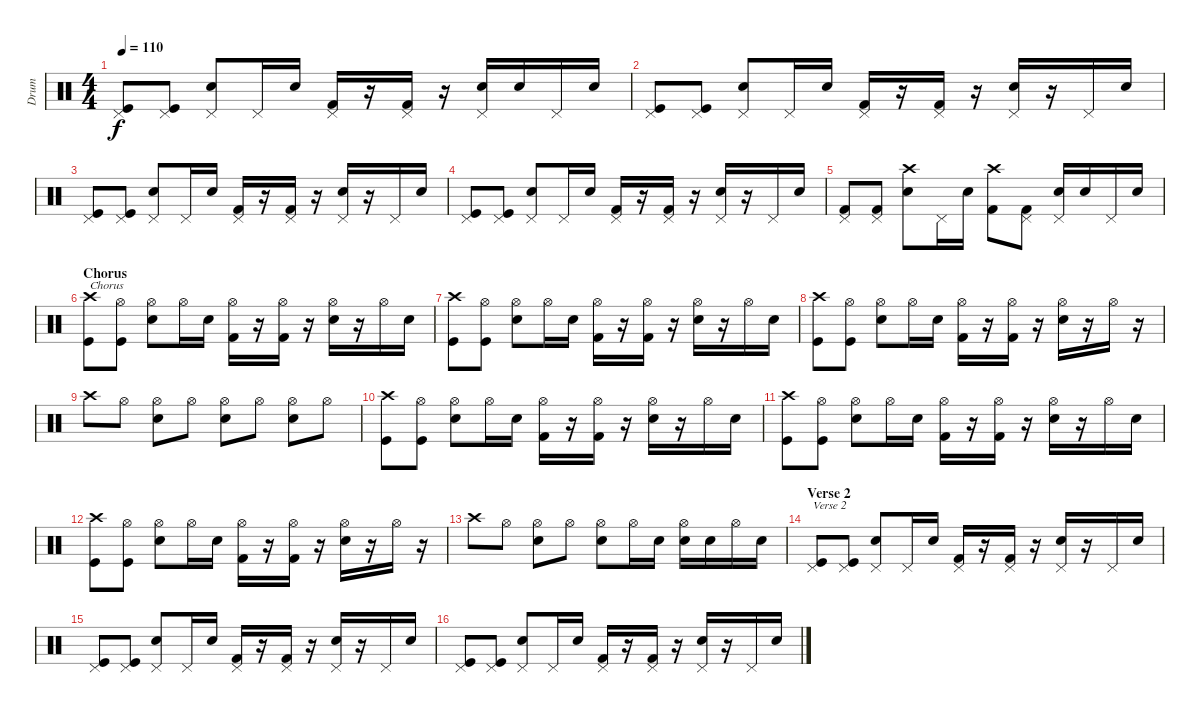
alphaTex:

\track ("Drum" "Drum") {instrument percussion}
\staff {score}
\articulation defaults
\ts (4 4)
\tempo 110
\clef neutral
\ks c
("Pedal Hi-Hat (hit)" "Kick (hit)").8{dy f} ("Pedal Hi-Hat (hit)" "Kick (hit)").8 ("Pedal Hi-Hat (hit)" "Electric Snare (hit)").8 "Pedal Hi-Hat (hit)".16 "Electric Snare (hit)".16 ("Pedal Hi-Hat (hit)" "Kick (hit) 2").16 r.16 ("Pedal Hi-Hat (hit)" "Kick (hit) 2").16 r.16 ("Pedal Hi-Hat (hit)" "Electric Snare (hit)").16 "Electric Snare (hit)".16 "Pedal Hi-Hat (hit)".16 "Electric Snare (hit)".16 |
("Pedal Hi-Hat (hit)" "Kick (hit)").8 ("Pedal Hi-Hat (hit)" "Kick (hit)").8 ("Pedal Hi-Hat (hit)" "Electric Snare (hit)").8 "Pedal Hi-Hat (hit)".16 "Electric Snare (hit)".16 ("Pedal Hi-Hat (hit)" "Kick (hit) 2").16 r.16 ("Pedal Hi-Hat (hit)" "Kick (hit) 2").16 r.16 ("Pedal Hi-Hat (hit)" "Electric Snare (hit)").16 r.16 "Pedal Hi-Hat (hit)".16 "Electric Snare (hit)".16 |
("Pedal Hi-Hat (hit)" "Kick (hit)").8 ("Pedal Hi-Hat (hit)" "Kick (hit)").8 ("Pedal Hi-Hat (hit)" "Electric Snare (hit)").8 "Pedal Hi-Hat (hit)".16 "Electric Snare (hit)".16 ("Pedal Hi-Hat (hit)" "Kick (hit) 2").16 r.16 ("Pedal Hi-Hat (hit)" "Kick (hit) 2").16 r.16 ("Pedal Hi-Hat (hit)" "Electric Snare (hit)").16 r.16 "Pedal Hi-Hat (hit)".16 "Electric Snare (hit)".16 |
("Pedal Hi-Hat (hit)" "Kick (hit)").8 ("Pedal Hi-Hat (hit)" "Kick (hit)").8 ("Pedal Hi-Hat (hit)" "Electric Snare (hit)").8 "Pedal Hi-Hat (hit)".16 "Electric Snare (hit)".16 ("Pedal Hi-Hat (hit)" "Kick (hit) 2").16 r.16 ("Pedal Hi-Hat (hit)" "Kick (hit) 2").16 r.16 ("Pedal Hi-Hat (hit)" "Electric Snare (hit)").16 r.16 "Pedal Hi-Hat (hit)".16 "Electric Snare (hit)".16 |
("Pedal Hi-Hat (hit)" "Kick (hit) 2").8 ("Pedal Hi-Hat (hit)" "Kick (hit) 2").8 ("Crash high (hit)" "Electric Snare (hit)").8 "Pedal Hi-Hat (hit)".16 "Electric Snare (hit)".16 ("Crash high (hit)" "Kick (hit) 2").8 ("Pedal Hi-Hat (hit)" "Kick (hit) 2").8 ("Pedal Hi-Hat (hit)" "Electric Snare (hit)").16 "Electric Snare (hit)".16 "Pedal Hi-Hat (hit)".16 "Electric Snare (hit)".16 |
\section ("" "Chorus")
("Crash high (hit)" "Kick (hit)").8{txt "Chorus"} ("Hi-Hat (open)" "Kick (hit)").8 ("Hi-Hat (open)" "Electric Snare (hit)").8 "Hi-Hat (open)".16 "Electric Snare (hit)".16 ("Hi-Hat (open)" "Kick (hit) 2").16 r.16 ("Hi-Hat (open)" "Kick (hit) 2").16 r.16 ("Hi-Hat (open)" "Electric Snare (hit)").16 r.16 "Hi-Hat (open)".16 "Electric Snare (hit)".16 |
("Crash high (hit)" "Kick (hit)").8 ("Hi-Hat (open)" "Kick (hit)").8 ("Hi-Hat (open)" "Electric Snare (hit)").8 "Hi-Hat (open)".16 "Electric Snare (hit)".16 ("Hi-Hat (open)" "Kick (hit) 2").16 r.16 ("Hi-Hat (open)" "Kick (hit) 2").16 r.16 ("Hi-Hat (open)" "Electric Snare (hit)").16 r.16 "Hi-Hat (open)".16 "Electric Snare (hit)".16 |
("Crash high (hit)" "Kick (hit)").8 ("Hi-Hat (open)" "Kick (hit)").8 ("Hi-Hat (open)" "Electric Snare (hit)").8 "Hi-Hat (open)".16 "Electric Snare (hit)".16 ("Hi-Hat (open)" "Kick (hit) 2").16 r.16 ("Hi-Hat (open)" "Kick (hit) 2").16 r.16 ("Hi-Hat (open)" "Electric Snare (hit)").16 r.16 "Hi-Hat (open)".16 r.16 |
"Crash high (hit)".8 "Hi-Hat (open)".8 ("Hi-Hat (open)" "Electric Snare (hit)").8 "Hi-Hat (open)".8 ("Hi-Hat (open)" "Electric Snare (hit)").8 "Hi-Hat (open)".8 ("Hi-Hat (open)" "Electric Snare (hit)").8 "Hi-Hat (open)".8 |
("Crash high (hit)" "Kick (hit)").8 ("Hi-Hat (open)" "Kick (hit)").8 ("Hi-Hat (open)" "Electric Snare (hit)").8 "Hi-Hat (open)".16 "Electric Snare (hit)".16 ("Hi-Hat (open)" "Kick (hit) 2").16 r.16 ("Hi-Hat (open)" "Kick (hit) 2").16 r.16 ("Hi-Hat (open)" "Electric Snare (hit)").16 r.16 "Hi-Hat (open)".16 "Electric Snare (hit)".16 |
("Crash high (hit)" "Kick (hit)").8 ("Hi-Hat (open)" "Kick (hit)").8 ("Hi-Hat (open)" "Electric Snare (hit)").8 "Hi-Hat (open)".16 "Electric Snare (hit)".16 ("Hi-Hat (open)" "Kick (hit) 2").16 r.16 ("Hi-Hat (open)" "Kick (hit) 2").16 r.16 ("Hi-Hat (open)" "Electric Snare (hit)").16 r.16 "Hi-Hat (open)".16 "Electric Snare (hit)".16 |
("Crash high (hit)" "Kick (hit)").8 ("Hi-Hat (open)" "Kick (hit)").8 ("Hi-Hat (open)" "Electric Snare (hit)").8 "Hi-Hat (open)".16 "Electric Snare (hit)".16 ("Hi-Hat (open)" "Kick (hit) 2").16 r.16 ("Hi-Hat (open)" "Kick (hit) 2").16 r.16 ("Hi-Hat (open)" "Electric Snare (hit)").16 r.16 "Hi-Hat (open)".16 r.16 |
"Crash high (hit)".8 "Hi-Hat (open)".8 ("Hi-Hat (open)" "Electric Snare (hit)").8 "Hi-Hat (open)".8 ("Hi-Hat (open)" "Electric Snare (hit)").8 "Hi-Hat (open)".16 "Electric Snare (hit)".16 ("Hi-Hat (open)" "Electric Snare (hit)").16 "Electric Snare (hit)".16 "Hi-Hat (open)".16 "Electric Snare (hit)".16 |
\section ("" "Verse 2")
("Pedal Hi-Hat (hit)" "Kick (hit)").8{txt "Verse 2"} ("Pedal Hi-Hat (hit)" "Kick (hit)").8 ("Pedal Hi-Hat (hit)" "Electric Snare (hit)").8 "Pedal Hi-Hat (hit)".16 "Electric Snare (hit)".16 ("Pedal Hi-Hat (hit)" "Kick (hit) 2").16 r.16 ("Pedal Hi-Hat (hit)" "Kick (hit) 2").16 r.16 ("Pedal Hi-Hat (hit)" "Electric Snare (hit)").16 r.16 "Pedal Hi-Hat (hit)".16 "Electric Snare (hit)".16 |
("Pedal Hi-Hat (hit)" "Kick (hit)").8 ("Pedal Hi-Hat (hit)" "Kick (hit)").8 ("Pedal Hi-Hat (hit)" "Electric Snare (hit)").8 "Pedal Hi-Hat (hit)".16 "Electric Snare (hit)".16 ("Pedal Hi-Hat (hit)" "Kick (hit) 2").16 r.16 ("Pedal Hi-Hat (hit)" "Kick (hit) 2").16 r.16 ("Pedal Hi-Hat (hit)" "Electric Snare (hit)").16 r.16 "Pedal Hi-Hat (hit)".16 "Electric Snare (hit)".16 |
("Pedal Hi-Hat (hit)" "Kick (hit)").8 ("Pedal Hi-Hat (hit)" "Kick (hit)").8 ("Pedal Hi-Hat (hit)" "Electric Snare (hit)").8 "Pedal Hi-Hat (hit)".16 "Electric Snare (hit)".16 ("Pedal Hi-Hat (hit)" "Kick (hit) 2").16 r.16 ("Pedal Hi-Hat (hit)" "Kick (hit) 2").16 r.16 ("Pedal Hi-Hat (hit)" "Electric Snare (hit)").16 r.16 "Pedal Hi-Hat (hit)".16 "Electric Snare (hit)".16
